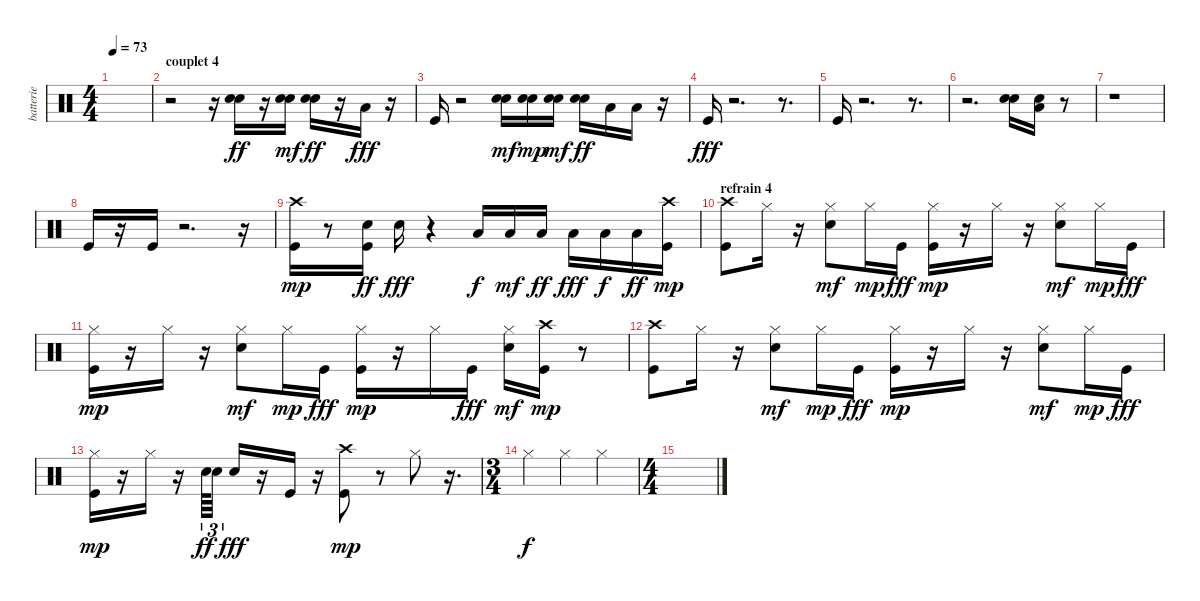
\track ("batterie" "batterie") {instrument percussion}
\staff {score}
\articulation defaults
\ts (4 4)
\tempo 73
\clef neutral
\ks c
|
\section ("" "couplet 4")
r.2 r.16 ("Snare (hit) 2" "Electric Snare (hit)").16{dy ff} r.16 ("Snare (hit) 2" "Electric Snare (hit)").16{dy mf} ("Snare (hit) 2" "Electric Snare (hit)").16{dy ff} r.16 "Low Floor Tom (hit)".16{dy fff} r.16 |
"Kick (hit)".16 r.2 ("Snare (hit) 2" "Electric Snare (hit)").16{dy mf} ("Snare (hit) 2" "Electric Snare (hit)").16{dy mp} ("Snare (hit) 2" "Electric Snare (hit)").16{dy mf} ("Snare (hit) 2" "Electric Snare (hit)").16{dy ff} "Low Floor Tom (hit)".16 "Low Floor Tom (hit)".16 r.16 |
"Kick (hit)".16{dy fff} r.2{d} r.8{d} |
"Kick (hit)".16 r.2{d} r.8{d} |
r.2{d} ("Snare (hit) 2" "Electric Snare (hit)").16 ("Electric Snare (hit)" "Low Floor Tom (hit)").16 r.8 |
r.1 |
"Kick (hit)".16 r.16 "Kick (hit)".16 r.2{d} r.16 |
("Kick (hit)" "Crash high (hit)").16{dy mp} r.8 ("Kick (hit)" "Snare (hit) 2").16{dy ff} "Snare (hit) 2".16{dy fff} r.4 "Low Floor Tom (hit)".16{dy f} "Low Floor Tom (hit)".16{dy mf} "Low Floor Tom (hit)".16{dy ff} "Low Floor Tom (hit)".16{dy fff} "Low Floor Tom (hit)".16{dy f} "Low Floor Tom (hit)".16{dy ff} ("Kick (hit)" "Crash high (hit)").16{dy mp} |
\section ("" "refrain 4")
("Kick (hit)" "Crash high (hit)").8 "Hi-Hat (closed)".16 r.16 ("Snare (hit) 2" "Hi-Hat (closed)").8{dy mf} "Hi-Hat (closed)".16{dy mp} "Kick (hit)".16{dy fff} ("Kick (hit)" "Hi-Hat (closed)").16{dy mp} r.16 "Hi-Hat (closed)".16 r.16 ("Snare (hit) 2" "Hi-Hat (closed)").8{dy mf} "Hi-Hat (closed)".16{dy mp} "Kick (hit)".16{dy fff} |
("Kick (hit)" "Hi-Hat (closed)").16{dy mp} r.16 "Hi-Hat (closed)".16 r.16 ("Snare (hit) 2" "Hi-Hat (closed)").8{dy mf} "Hi-Hat (closed)".16{dy mp} "Kick (hit)".16{dy fff} ("Kick (hit)" "Hi-Hat (closed)").16{dy mp} r.16 "Hi-Hat (closed)".16 "Kick (hit)".16{dy fff} ("Snare (hit) 2" "Hi-Hat (closed)").16{dy mf} ("Kick (hit)" "Crash high (hit)").16{dy mp} r.8 |
("Kick (hit)" "Crash high (hit)").8 "Hi-Hat (closed)".16 r.16 ("Snare (hit) 2" "Hi-Hat (closed)").8{dy mf} "Hi-Hat (closed)".16{dy mp} "Kick (hit)".16{dy fff} ("Kick (hit)" "Hi-Hat (closed)").16{dy mp} r.16 "Hi-Hat (closed)".16 r.16 ("Snare (hit) 2" "Hi-Hat (closed)").8{dy mf} "Hi-Hat (closed)".16{dy mp} "Kick (hit)".16{dy fff} |
("Kick (hit)" "Hi-Hat (closed)").16{dy mp} r.16 "Hi-Hat (closed)".16 r.16 "Snare (hit) 2".64{tu (3 2) dy ff} "Snare (hit) 2".32{tu (3 2)} "Snare (hit) 2".16{dy fff} r.16 "Kick (hit)".16 r.16 ("Kick (hit)" "Crash high (hit)").8{dy mp} r.8 "Hi-Hat (closed)".8 r.16{d} |
\ts (3 4)
"Hi-Hat (closed)".4{dy f} "Hi-Hat (closed)".4 "Hi-Hat (closed)".4 |
\ts (4 4)
